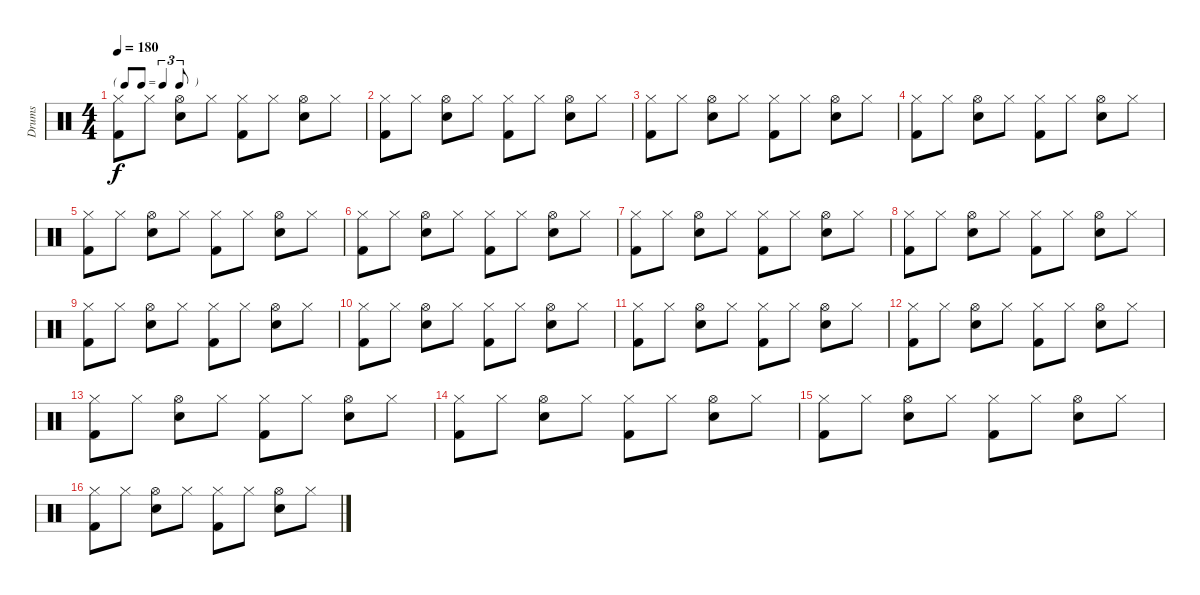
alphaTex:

\track ("Drums" "Drums") {instrument percussion}
\staff {score}
\articulation defaults
\ts (4 4)
\tf triplet8th
\tempo 180
\clef neutral
\ks c
("Hi-Hat (closed)" "Kick (hit) 2").8{dy f} "Hi-Hat (closed)".8 ("Hi-Hat (open)" "Snare (hit) 2").8 "Hi-Hat (closed)".8 ("Hi-Hat (closed)" "Kick (hit) 2").8 "Hi-Hat (closed)".8 ("Hi-Hat (open)" "Snare (hit) 2").8 "Hi-Hat (closed)".8 |
("Hi-Hat (closed)" "Kick (hit) 2").8 "Hi-Hat (closed)".8 ("Hi-Hat (open)" "Snare (hit) 2").8 "Hi-Hat (closed)".8 ("Hi-Hat (closed)" "Kick (hit) 2").8 "Hi-Hat (closed)".8 ("Hi-Hat (open)" "Snare (hit) 2").8 "Hi-Hat (closed)".8 |
("Hi-Hat (closed)" "Kick (hit) 2").8 "Hi-Hat (closed)".8 ("Hi-Hat (open)" "Snare (hit) 2").8 "Hi-Hat (closed)".8 ("Hi-Hat (closed)" "Kick (hit) 2").8 "Hi-Hat (closed)".8 ("Hi-Hat (open)" "Snare (hit) 2").8 "Hi-Hat (closed)".8 |
("Hi-Hat (closed)" "Kick (hit) 2").8 "Hi-Hat (closed)".8 ("Hi-Hat (open)" "Snare (hit) 2").8 "Hi-Hat (closed)".8 ("Hi-Hat (closed)" "Kick (hit) 2").8 "Hi-Hat (closed)".8 ("Hi-Hat (open)" "Snare (hit) 2").8 "Hi-Hat (closed)".8 |
("Hi-Hat (closed)" "Kick (hit) 2").8 "Hi-Hat (closed)".8 ("Hi-Hat (open)" "Snare (hit) 2").8 "Hi-Hat (closed)".8 ("Hi-Hat (closed)" "Kick (hit) 2").8 "Hi-Hat (closed)".8 ("Hi-Hat (open)" "Snare (hit) 2").8 "Hi-Hat (closed)".8 |
("Hi-Hat (closed)" "Kick (hit) 2").8 "Hi-Hat (closed)".8 ("Hi-Hat (open)" "Snare (hit) 2").8 "Hi-Hat (closed)".8 ("Hi-Hat (closed)" "Kick (hit) 2").8 "Hi-Hat (closed)".8 ("Hi-Hat (open)" "Snare (hit) 2").8 "Hi-Hat (closed)".8 |
("Hi-Hat (closed)" "Kick (hit) 2").8 "Hi-Hat (closed)".8 ("Hi-Hat (open)" "Snare (hit) 2").8 "Hi-Hat (closed)".8 ("Hi-Hat (closed)" "Kick (hit) 2").8 "Hi-Hat (closed)".8 ("Hi-Hat (open)" "Snare (hit) 2").8 "Hi-Hat (closed)".8 |
("Hi-Hat (closed)" "Kick (hit) 2").8 "Hi-Hat (closed)".8 ("Hi-Hat (open)" "Snare (hit) 2").8 "Hi-Hat (closed)".8 ("Hi-Hat (closed)" "Kick (hit) 2").8 "Hi-Hat (closed)".8 ("Hi-Hat (open)" "Snare (hit) 2").8 "Hi-Hat (closed)".8 |
("Hi-Hat (closed)" "Kick (hit) 2").8 "Hi-Hat (closed)".8 ("Hi-Hat (open)" "Snare (hit) 2").8 "Hi-Hat (closed)".8 ("Hi-Hat (closed)" "Kick (hit) 2").8 "Hi-Hat (closed)".8 ("Hi-Hat (open)" "Snare (hit) 2").8 "Hi-Hat (closed)".8 |
("Hi-Hat (closed)" "Kick (hit) 2").8 "Hi-Hat (closed)".8 ("Hi-Hat (open)" "Snare (hit) 2").8 "Hi-Hat (closed)".8 ("Hi-Hat (closed)" "Kick (hit) 2").8 "Hi-Hat (closed)".8 ("Hi-Hat (open)" "Snare (hit) 2").8 "Hi-Hat (closed)".8 |
("Hi-Hat (closed)" "Kick (hit) 2").8 "Hi-Hat (closed)".8 ("Hi-Hat (open)" "Snare (hit) 2").8 "Hi-Hat (closed)".8 ("Hi-Hat (closed)" "Kick (hit) 2").8 "Hi-Hat (closed)".8 ("Hi-Hat (open)" "Snare (hit) 2").8 "Hi-Hat (closed)".8 |
("Hi-Hat (closed)" "Kick (hit) 2").8 "Hi-Hat (closed)".8 ("Hi-Hat (open)" "Snare (hit) 2").8 "Hi-Hat (closed)".8 ("Hi-Hat (closed)" "Kick (hit) 2").8 "Hi-Hat (closed)".8 ("Hi-Hat (open)" "Snare (hit) 2").8 "Hi-Hat (closed)".8 |
("Hi-Hat (closed)" "Kick (hit) 2").8 "Hi-Hat (closed)".8 ("Hi-Hat (open)" "Snare (hit) 2").8 "Hi-Hat (closed)".8 ("Hi-Hat (closed)" "Kick (hit) 2").8 "Hi-Hat (closed)".8 ("Hi-Hat (open)" "Snare (hit) 2").8 "Hi-Hat (closed)".8 |
("Hi-Hat (closed)" "Kick (hit) 2").8 "Hi-Hat (closed)".8 ("Hi-Hat (open)" "Snare (hit) 2").8 "Hi-Hat (closed)".8 ("Hi-Hat (closed)" "Kick (hit) 2").8 "Hi-Hat (closed)".8 ("Hi-Hat (open)" "Snare (hit) 2").8 "Hi-Hat (closed)".8 |
("Hi-Hat (closed)" "Kick (hit) 2").8 "Hi-Hat (closed)".8 ("Hi-Hat (open)" "Snare (hit) 2").8 "Hi-Hat (closed)".8 ("Hi-Hat (closed)" "Kick (hit) 2").8 "Hi-Hat (closed)".8 ("Hi-Hat (open)" "Snare (hit) 2").8 "Hi-Hat (closed)".8 |
("Hi-Hat (closed)" "Kick (hit) 2").8 "Hi-Hat (closed)".8 ("Hi-Hat (open)" "Snare (hit) 2").8 "Hi-Hat (closed)".8 ("Hi-Hat (closed)" "Kick (hit) 2").8 "Hi-Hat (closed)".8 ("Hi-Hat (open)" "Snare (hit) 2").8 "Hi-Hat (closed)".8
